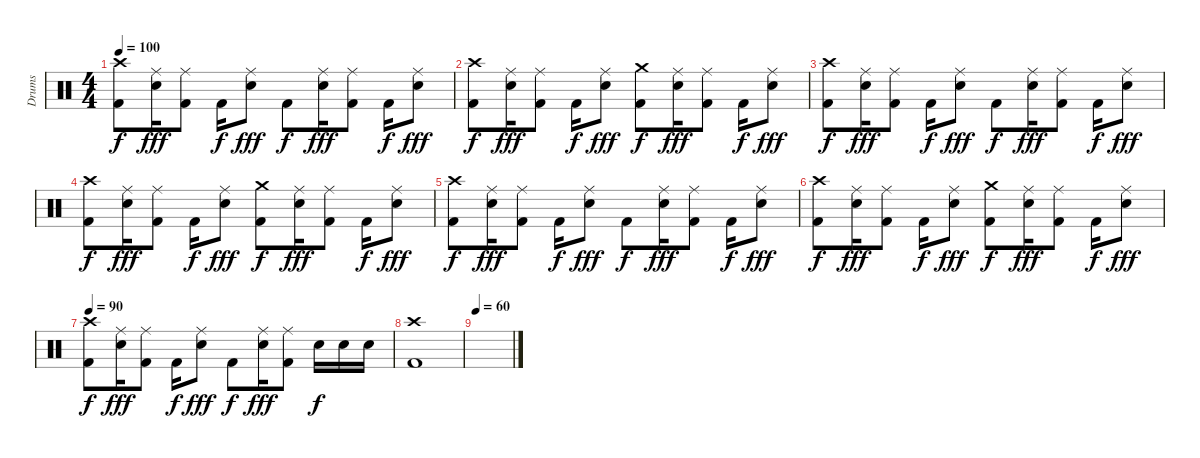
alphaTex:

\track ("Drums" "Drums") {instrument percussion}
\staff {score}
\articulation defaults
\ts (4 4)
\tempo 100
\clef neutral
\ks c
("Crash high (hit)" "Kick (hit) 2").8{dy f} ("Ride (middle)" "Snare (hit) 2").16{dy fff} ("Ride (middle)" "Kick (hit) 2").8 "Kick (hit) 2".16{dy f} ("Ride (middle)" "Snare (hit) 2").8{dy fff} "Kick (hit) 2".8{dy f} ("Ride (middle)" "Snare (hit) 2").16{dy fff} ("Ride (middle)" "Kick (hit) 2").8 "Kick (hit) 2".16{dy f} ("Ride (middle)" "Snare (hit) 2").8{dy fff} |
("Crash high (hit)" "Kick (hit) 2").8{dy f} ("Ride (middle)" "Snare (hit) 2").16{dy fff} ("Ride (middle)" "Kick (hit) 2").8 "Kick (hit) 2".16{dy f} ("Ride (middle)" "Snare (hit) 2").8{dy fff} ("Crash medium (hit)" "Kick (hit) 2").8{dy f} ("Ride (middle)" "Snare (hit) 2").16{dy fff} ("Ride (middle)" "Kick (hit) 2").8 "Kick (hit) 2".16{dy f} ("Ride (middle)" "Snare (hit) 2").8{dy fff} |
("Crash high (hit)" "Kick (hit) 2").8{dy f} ("Ride (middle)" "Snare (hit) 2").16{dy fff} ("Ride (middle)" "Kick (hit) 2").8 "Kick (hit) 2".16{dy f} ("Ride (middle)" "Snare (hit) 2").8{dy fff} "Kick (hit) 2".8{dy f} ("Ride (middle)" "Snare (hit) 2").16{dy fff} ("Ride (middle)" "Kick (hit) 2").8 "Kick (hit) 2".16{dy f} ("Ride (middle)" "Snare (hit) 2").8{dy fff} |
("Crash high (hit)" "Kick (hit) 2").8{dy f} ("Ride (middle)" "Snare (hit) 2").16{dy fff} ("Ride (middle)" "Kick (hit) 2").8 "Kick (hit) 2".16{dy f} ("Ride (middle)" "Snare (hit) 2").8{dy fff} ("Crash medium (hit)" "Kick (hit) 2").8{dy f} ("Ride (middle)" "Snare (hit) 2").16{dy fff} ("Ride (middle)" "Kick (hit) 2").8 "Kick (hit) 2".16{dy f} ("Ride (middle)" "Snare (hit) 2").8{dy fff} |
("Crash high (hit)" "Kick (hit) 2").8{dy f} ("Ride (middle)" "Snare (hit) 2").16{dy fff} ("Ride (middle)" "Kick (hit) 2").8 "Kick (hit) 2".16{dy f} ("Ride (middle)" "Snare (hit) 2").8{dy fff} "Kick (hit) 2".8{dy f} ("Ride (middle)" "Snare (hit) 2").16{dy fff} ("Ride (middle)" "Kick (hit) 2").8 "Kick (hit) 2".16{dy f} ("Ride (middle)" "Snare (hit) 2").8{dy fff} |
("Crash high (hit)" "Kick (hit) 2").8{dy f} ("Ride (middle)" "Snare (hit) 2").16{dy fff} ("Ride (middle)" "Kick (hit) 2").8 "Kick (hit) 2".16{dy f} ("Ride (middle)" "Snare (hit) 2").8{dy fff} ("Crash medium (hit)" "Kick (hit) 2").8{dy f} ("Ride (middle)" "Snare (hit) 2").16{dy fff} ("Ride (middle)" "Kick (hit) 2").8 "Kick (hit) 2".16{dy f} ("Ride (middle)" "Snare (hit) 2").8{dy fff} |
\tempo 90
("Crash high (hit)" "Kick (hit) 2").8{dy f} ("Ride (middle)" "Snare (hit) 2").16{dy fff} ("Ride (middle)" "Kick (hit) 2").8 "Kick (hit) 2".16{dy f} ("Ride (middle)" "Snare (hit) 2").8{dy fff} "Kick (hit) 2".8{dy f} ("Ride (middle)" "Snare (hit) 2").16{dy fff} ("Ride (middle)" "Kick (hit) 2").8 "Snare (hit) 2".16{dy f} "Snare (hit) 2".16 "Snare (hit) 2".16 |
("Crash high (hit)" "Kick (hit) 2").1 |
\tempo 60
